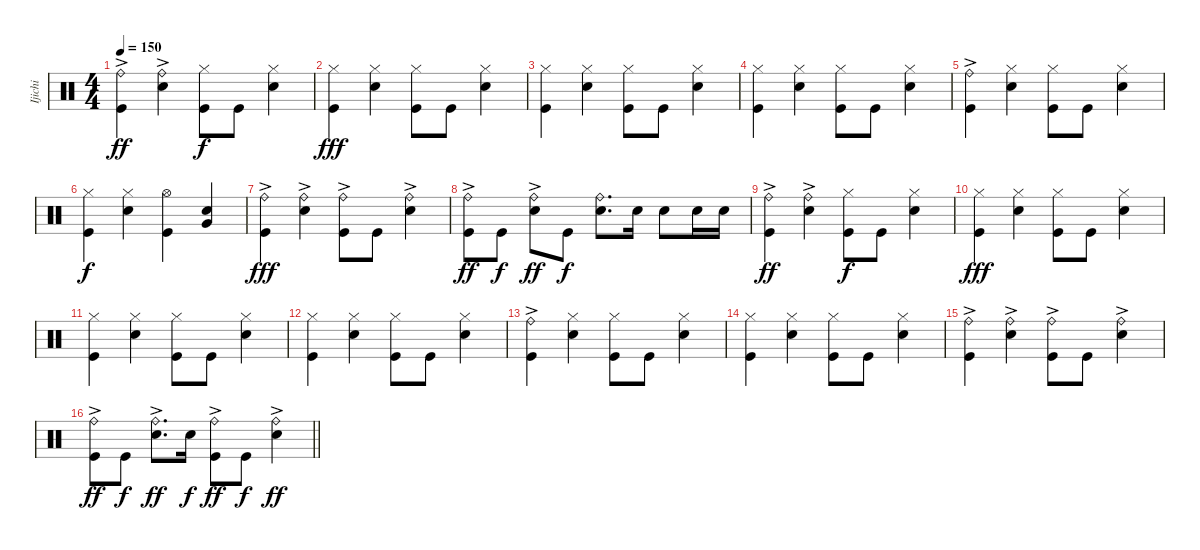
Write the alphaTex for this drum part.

\track ("Ijichi" "Ijichi") {instrument percussion}
\staff {score}
\articulation defaults
\ts (4 4)
\tempo 150
\clef neutral
\ks c
("Ride (bell)"{ac} "Kick (hit)").4{dy ff} ("Ride (bell)"{ac} "Snare (hit) 2").4 ("Hi-Hat (closed)" "Kick (hit)").8{dy f} "Kick (hit)".8 ("Hi-Hat (closed)" "Snare (hit) 2").4 |
("Hi-Hat (closed)" "Kick (hit)").4{dy fff} ("Hi-Hat (closed)" "Snare (hit) 2").4 ("Hi-Hat (closed)" "Kick (hit)").8 "Kick (hit)".8 ("Hi-Hat (closed)" "Snare (hit) 2").4 |
("Hi-Hat (closed)" "Kick (hit)").4 ("Hi-Hat (closed)" "Snare (hit) 2").4 ("Hi-Hat (closed)" "Kick (hit)").8 "Kick (hit)".8 ("Hi-Hat (closed)" "Snare (hit) 2").4 |
("Hi-Hat (closed)" "Kick (hit)").4 ("Hi-Hat (closed)" "Snare (hit) 2").4 ("Hi-Hat (closed)" "Kick (hit)").8 "Kick (hit)".8 ("Hi-Hat (closed)" "Snare (hit) 2").4 |
("Ride (bell)"{ac} "Kick (hit)").4 ("Hi-Hat (closed)" "Snare (hit) 2").4 ("Hi-Hat (closed)" "Kick (hit)").8 "Kick (hit)".8 ("Hi-Hat (closed)" "Snare (hit) 2").4 |
("Hi-Hat (closed)" "Kick (hit)").4{dy f} ("Hi-Hat (closed)" "Snare (hit) 2").4 ("Hi-Hat (open)" "Kick (hit)").4 ("Snare (hit) 2" "Very Low Tom (hit)").4 |
("Ride (bell)"{ac} "Kick (hit)").4{dy fff} ("Ride (bell)"{ac} "Snare (hit) 2").4 ("Ride (bell)"{ac} "Kick (hit)").8 "Kick (hit)".8 ("Ride (bell)"{ac} "Snare (hit) 2").4 |
("Ride (bell)"{ac} "Kick (hit)").8{dy ff} "Kick (hit)".8{dy f} ("Ride (bell)"{ac} "Snare (hit) 2").8{dy ff} "Kick (hit)".8{dy f} ("Ride (bell)" "Snare (hit) 2").8{d} "Snare (hit) 2".16 "Snare (hit) 2".8 "Snare (hit) 2".16 "Snare (hit) 2".16 |
("Ride (bell)"{ac} "Kick (hit)").4{dy ff} ("Ride (bell)"{ac} "Snare (hit) 2").4 ("Hi-Hat (closed)" "Kick (hit)").8{dy f} "Kick (hit)".8 ("Hi-Hat (closed)" "Snare (hit) 2").4 |
("Hi-Hat (closed)" "Kick (hit)").4{dy fff} ("Hi-Hat (closed)" "Snare (hit) 2").4 ("Hi-Hat (closed)" "Kick (hit)").8 "Kick (hit)".8 ("Hi-Hat (closed)" "Snare (hit) 2").4 |
("Hi-Hat (closed)" "Kick (hit)").4 ("Hi-Hat (closed)" "Snare (hit) 2").4 ("Hi-Hat (closed)" "Kick (hit)").8 "Kick (hit)".8 ("Hi-Hat (closed)" "Snare (hit) 2").4 |
("Hi-Hat (closed)" "Kick (hit)").4 ("Hi-Hat (closed)" "Snare (hit) 2").4 ("Hi-Hat (closed)" "Kick (hit)").8 "Kick (hit)".8 ("Hi-Hat (closed)" "Snare (hit) 2").4 |
("Ride (bell)"{ac} "Kick (hit)").4 ("Hi-Hat (closed)" "Snare (hit) 2").4 ("Hi-Hat (closed)" "Kick (hit)").8 "Kick (hit)".8 ("Hi-Hat (closed)" "Snare (hit) 2").4 |
("Hi-Hat (closed)" "Kick (hit)").4 ("Hi-Hat (closed)" "Snare (hit) 2").4 ("Hi-Hat (closed)" "Kick (hit)").8 "Kick (hit)".8 ("Hi-Hat (closed)" "Snare (hit) 2").4 |
("Ride (bell)"{ac} "Kick (hit)").4 ("Ride (bell)"{ac} "Snare (hit) 2").4 ("Ride (bell)"{ac} "Kick (hit)").8 "Kick (hit)".8 ("Ride (bell)"{ac} "Snare (hit) 2").4 |
\barLineRight lightlight
("Ride (bell)"{ac} "Kick (hit)").8{dy ff} "Kick (hit)".8{dy f} ("Ride (bell)"{ac} "Snare (hit) 2").8{d dy ff} "Snare (hit) 2".16{dy f} ("Ride (bell)"{ac} "Kick (hit)").8{dy ff} "Kick (hit)".8{dy f} ("Ride (bell)"{ac} "Snare (hit) 2").4{dy ff}
